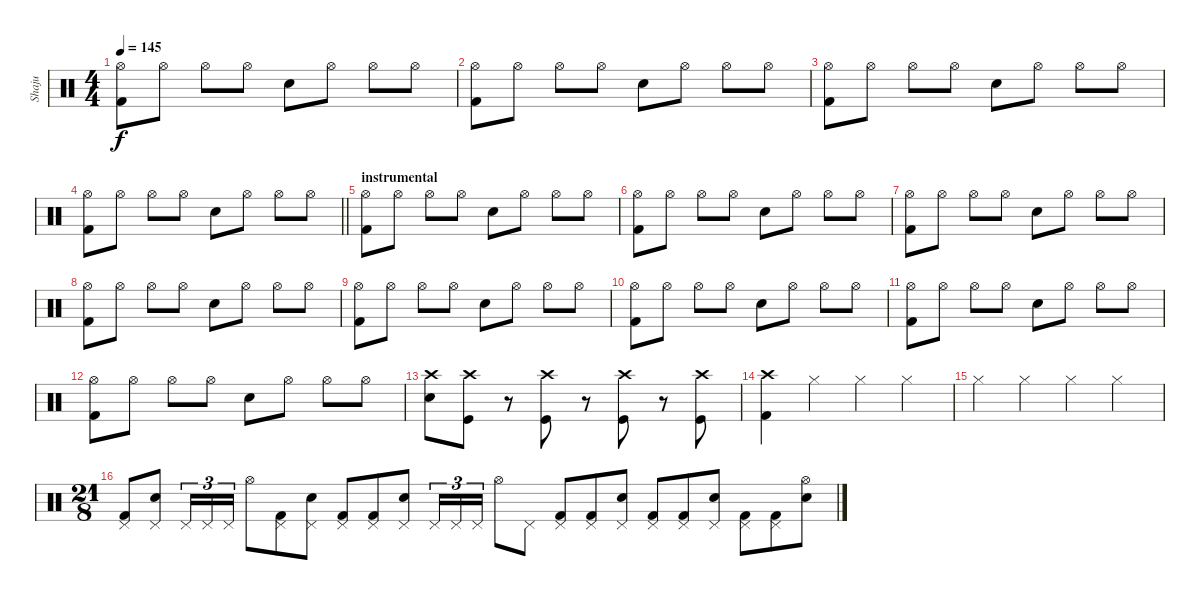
\track ("Shaju" "Shaju") {instrument percussion}
\staff {score}
\articulation defaults
\ts (4 4)
\tempo 145
\clef neutral
\ks c
("Hi-Hat (open)" "Kick (hit) 2").8{dy f} "Hi-Hat (open)".8 "Hi-Hat (open)".8 "Hi-Hat (open)".8 "Snare (hit) 2".8 "Hi-Hat (open)".8 "Hi-Hat (open)".8 "Hi-Hat (open)".8 |
("Hi-Hat (open)" "Kick (hit) 2").8 "Hi-Hat (open)".8 "Hi-Hat (open)".8 "Hi-Hat (open)".8 "Snare (hit) 2".8 "Hi-Hat (open)".8 "Hi-Hat (open)".8 "Hi-Hat (open)".8 |
("Hi-Hat (open)" "Kick (hit) 2").8 "Hi-Hat (open)".8 "Hi-Hat (open)".8 "Hi-Hat (open)".8 "Snare (hit) 2".8 "Hi-Hat (open)".8 "Hi-Hat (open)".8 "Hi-Hat (open)".8 |
\barLineRight lightlight
("Hi-Hat (open)" "Kick (hit) 2").8 "Hi-Hat (open)".8 "Hi-Hat (open)".8 "Hi-Hat (open)".8 "Snare (hit) 2".8 "Hi-Hat (open)".8 "Hi-Hat (open)".8 "Hi-Hat (open)".8 |
\section ("" "instrumental")
("Hi-Hat (open)" "Kick (hit) 2").8 "Hi-Hat (open)".8 "Hi-Hat (open)".8 "Hi-Hat (open)".8 "Snare (hit) 2".8 "Hi-Hat (open)".8 "Hi-Hat (open)".8 "Hi-Hat (open)".8 |
("Hi-Hat (open)" "Kick (hit) 2").8 "Hi-Hat (open)".8 "Hi-Hat (open)".8 "Hi-Hat (open)".8 "Snare (hit) 2".8 "Hi-Hat (open)".8 "Hi-Hat (open)".8 "Hi-Hat (open)".8 |
("Hi-Hat (open)" "Kick (hit) 2").8 "Hi-Hat (open)".8 "Hi-Hat (open)".8 "Hi-Hat (open)".8 "Snare (hit) 2".8 "Hi-Hat (open)".8 "Hi-Hat (open)".8 "Hi-Hat (open)".8 |
("Hi-Hat (open)" "Kick (hit) 2").8 "Hi-Hat (open)".8 "Hi-Hat (open)".8 "Hi-Hat (open)".8 "Snare (hit) 2".8 "Hi-Hat (open)".8 "Hi-Hat (open)".8 "Hi-Hat (open)".8 |
("Hi-Hat (open)" "Kick (hit) 2").8 "Hi-Hat (open)".8 "Hi-Hat (open)".8 "Hi-Hat (open)".8 "Snare (hit) 2".8 "Hi-Hat (open)".8 "Hi-Hat (open)".8 "Hi-Hat (open)".8 |
("Hi-Hat (open)" "Kick (hit) 2").8 "Hi-Hat (open)".8 "Hi-Hat (open)".8 "Hi-Hat (open)".8 "Snare (hit) 2".8 "Hi-Hat (open)".8 "Hi-Hat (open)".8 "Hi-Hat (open)".8 |
("Hi-Hat (open)" "Kick (hit) 2").8 "Hi-Hat (open)".8 "Hi-Hat (open)".8 "Hi-Hat (open)".8 "Snare (hit) 2".8 "Hi-Hat (open)".8 "Hi-Hat (open)".8 "Hi-Hat (open)".8 |
("Hi-Hat (open)" "Kick (hit) 2").8 "Hi-Hat (open)".8 "Hi-Hat (open)".8 "Hi-Hat (open)".8 "Snare (hit) 2".8 "Hi-Hat (open)".8 "Hi-Hat (open)".8 "Hi-Hat (open)".8 |
("Crash high (hit)" "Snare (hit) 2").8 ("Crash high (hit)" "Kick (hit)").8 r.8 ("Kick (hit)" "Crash high (hit)").8 r.8 ("Kick (hit)" "Crash high (hit)").8 r.8 ("Crash high (hit)" "Kick (hit)").8 |
("Crash high (hit)" "Kick (hit) 2").4 "Hi-Hat (closed)".4 "Hi-Hat (closed)".4 "Hi-Hat (closed)".4 |
"Hi-Hat (closed)".4 "Hi-Hat (closed)".4 "Hi-Hat (closed)".4 "Hi-Hat (closed)".4 |
\ts (21 8)
("Pedal Hi-Hat (hit)" "Kick (hit) 2").8 ("Pedal Hi-Hat (hit)" "Snare (hit) 2").8 "Pedal Hi-Hat (hit)".16{tu (3 2)} "Pedal Hi-Hat (hit)".16{tu (3 2)} "Pedal Hi-Hat (hit)".16{tu (3 2)} "Hi-Hat (open)".8 ("Pedal Hi-Hat (hit)" "Kick (hit) 2").8 ("Pedal Hi-Hat (hit)" "Snare (hit) 2").8 ("Pedal Hi-Hat (hit)" "Kick (hit) 2").8 ("Pedal Hi-Hat (hit)" "Kick (hit) 2").8 ("Pedal Hi-Hat (hit)" "Snare (hit) 2").8 "Pedal Hi-Hat (hit)".16{tu (3 2)} "Pedal Hi-Hat (hit)".16{tu (3 2)} "Pedal Hi-Hat (hit)".16{tu (3 2)} "Hi-Hat (open)".8 "Pedal Hi-Hat (hit)".8 ("Pedal Hi-Hat (hit)" "Kick (hit) 2").8 ("Pedal Hi-Hat (hit)" "Kick (hit) 2").8 ("Pedal Hi-Hat (hit)" "Snare (hit) 2").8 ("Pedal Hi-Hat (hit)" "Kick (hit) 2").8 ("Pedal Hi-Hat (hit)" "Kick (hit) 2").8 ("Pedal Hi-Hat (hit)" "Snare (hit) 2").8 ("Pedal Hi-Hat (hit)" "Kick (hit) 2").8 ("Pedal Hi-Hat (hit)" "Kick (hit) 2").8 ("Hi-Hat (open)" "Snare (hit) 2").8
